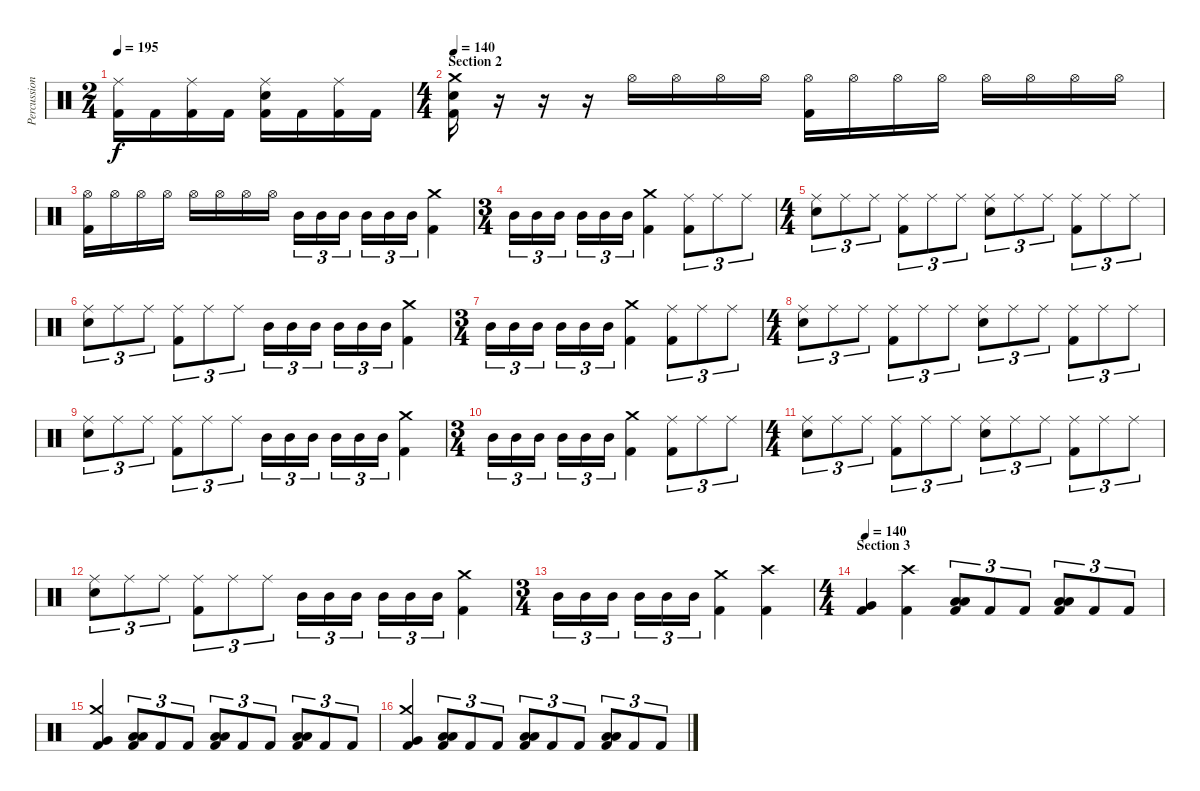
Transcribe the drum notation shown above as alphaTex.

\track ("Percussion" "Percussion") {instrument percussion}
\staff {score}
\articulation defaults
\ts (2 4)
\tempo 195
\clef neutral
\ks c
("Ride (middle)" "Kick (hit) 2").16{dy f} "Kick (hit) 2".16 ("Ride (middle)" "Kick (hit) 2").16 "Kick (hit) 2".16 ("Ride (middle)" "Electric Snare (hit)" "Kick (hit) 2").16 "Kick (hit) 2".16 ("Ride (middle)" "Kick (hit) 2").16 "Kick (hit) 2".16 |
\ts (4 4)
\section ("" "Section 2")
\tempo 140
("Crash medium (hit)" "Electric Snare (hit)" "Kick (hit) 2").16 r.16 r.16 r.16 "Hi-Hat (open)".16 "Hi-Hat (open)".16 "Hi-Hat (open)".16 "Hi-Hat (open)".16 ("Hi-Hat (open)" "Kick (hit) 2").16 "Hi-Hat (open)".16 "Hi-Hat (open)".16 "Hi-Hat (open)".16 "Hi-Hat (open)".16 "Hi-Hat (open)".16 "Hi-Hat (open)".16 "Hi-Hat (open)".16 |
("Hi-Hat (open)" "Kick (hit) 2").16 "Hi-Hat (open)".16 "Hi-Hat (open)".16 "Hi-Hat (open)".16 "Hi-Hat (open)".16 "Hi-Hat (open)".16 "Hi-Hat (open)".16 "Hi-Hat (open)".16 "Mid Tom (hit)".16{tu (3 2)} "Mid Tom (hit)".16{tu (3 2)} "Mid Tom (hit)".16{tu (3 2)} "Mid Tom (hit)".16{tu (3 2)} "Mid Tom (hit)".16{tu (3 2)} "Mid Tom (hit)".16{tu (3 2)} ("Crash medium (hit)" "Kick (hit) 2").4 |
\ts (3 4)
"Mid Tom (hit)".16{tu (3 2)} "Mid Tom (hit)".16{tu (3 2)} "Mid Tom (hit)".16{tu (3 2)} "Mid Tom (hit)".16{tu (3 2)} "Mid Tom (hit)".16{tu (3 2)} "Mid Tom (hit)".16{tu (3 2)} ("Crash medium (hit)" "Kick (hit) 2").4 ("Ride (middle)" "Kick (hit) 2").8{tu (3 2)} "Ride (middle)".8{tu (3 2)} "Ride (middle)".8{tu (3 2)} |
\ts (4 4)
("Ride (middle)" "Electric Snare (hit)").8{tu (3 2)} "Ride (middle)".8{tu (3 2)} "Ride (middle)".8{tu (3 2)} ("Ride (middle)" "Kick (hit) 2").8{tu (3 2)} "Ride (middle)".8{tu (3 2)} "Ride (middle)".8{tu (3 2)} ("Ride (middle)" "Electric Snare (hit)").8{tu (3 2)} "Ride (middle)".8{tu (3 2)} "Ride (middle)".8{tu (3 2)} ("Ride (middle)" "Kick (hit) 2").8{tu (3 2)} "Ride (middle)".8{tu (3 2)} "Ride (middle)".8{tu (3 2)} |
("Ride (middle)" "Electric Snare (hit)").8{tu (3 2)} "Ride (middle)".8{tu (3 2)} "Ride (middle)".8{tu (3 2)} ("Ride (middle)" "Kick (hit) 2").8{tu (3 2)} "Ride (middle)".8{tu (3 2)} "Ride (middle)".8{tu (3 2)} "Mid Tom (hit)".16{tu (3 2)} "Mid Tom (hit)".16{tu (3 2)} "Mid Tom (hit)".16{tu (3 2)} "Mid Tom (hit)".16{tu (3 2)} "Mid Tom (hit)".16{tu (3 2)} "Mid Tom (hit)".16{tu (3 2)} ("Crash medium (hit)" "Kick (hit) 2").4 |
\ts (3 4)
"Mid Tom (hit)".16{tu (3 2)} "Mid Tom (hit)".16{tu (3 2)} "Mid Tom (hit)".16{tu (3 2)} "Mid Tom (hit)".16{tu (3 2)} "Mid Tom (hit)".16{tu (3 2)} "Mid Tom (hit)".16{tu (3 2)} ("Crash medium (hit)" "Kick (hit) 2").4 ("Ride (middle)" "Kick (hit) 2").8{tu (3 2)} "Ride (middle)".8{tu (3 2)} "Ride (middle)".8{tu (3 2)} |
\ts (4 4)
("Ride (middle)" "Electric Snare (hit)").8{tu (3 2)} "Ride (middle)".8{tu (3 2)} "Ride (middle)".8{tu (3 2)} ("Ride (middle)" "Kick (hit) 2").8{tu (3 2)} "Ride (middle)".8{tu (3 2)} "Ride (middle)".8{tu (3 2)} ("Ride (middle)" "Electric Snare (hit)").8{tu (3 2)} "Ride (middle)".8{tu (3 2)} "Ride (middle)".8{tu (3 2)} ("Ride (middle)" "Kick (hit) 2").8{tu (3 2)} "Ride (middle)".8{tu (3 2)} "Ride (middle)".8{tu (3 2)} |
("Ride (middle)" "Electric Snare (hit)").8{tu (3 2)} "Ride (middle)".8{tu (3 2)} "Ride (middle)".8{tu (3 2)} ("Ride (middle)" "Kick (hit) 2").8{tu (3 2)} "Ride (middle)".8{tu (3 2)} "Ride (middle)".8{tu (3 2)} "Mid Tom (hit)".16{tu (3 2)} "Mid Tom (hit)".16{tu (3 2)} "Mid Tom (hit)".16{tu (3 2)} "Mid Tom (hit)".16{tu (3 2)} "Mid Tom (hit)".16{tu (3 2)} "Mid Tom (hit)".16{tu (3 2)} ("Crash medium (hit)" "Kick (hit) 2").4 |
\ts (3 4)
"Mid Tom (hit)".16{tu (3 2)} "Mid Tom (hit)".16{tu (3 2)} "Mid Tom (hit)".16{tu (3 2)} "Mid Tom (hit)".16{tu (3 2)} "Mid Tom (hit)".16{tu (3 2)} "Mid Tom (hit)".16{tu (3 2)} ("Crash medium (hit)" "Kick (hit) 2").4 ("Ride (middle)" "Kick (hit) 2").8{tu (3 2)} "Ride (middle)".8{tu (3 2)} "Ride (middle)".8{tu (3 2)} |
\ts (4 4)
("Ride (middle)" "Electric Snare (hit)").8{tu (3 2)} "Ride (middle)".8{tu (3 2)} "Ride (middle)".8{tu (3 2)} ("Ride (middle)" "Kick (hit) 2").8{tu (3 2)} "Ride (middle)".8{tu (3 2)} "Ride (middle)".8{tu (3 2)} ("Ride (middle)" "Electric Snare (hit)").8{tu (3 2)} "Ride (middle)".8{tu (3 2)} "Ride (middle)".8{tu (3 2)} ("Ride (middle)" "Kick (hit) 2").8{tu (3 2)} "Ride (middle)".8{tu (3 2)} "Ride (middle)".8{tu (3 2)} |
("Ride (middle)" "Electric Snare (hit)").8{tu (3 2)} "Ride (middle)".8{tu (3 2)} "Ride (middle)".8{tu (3 2)} ("Ride (middle)" "Kick (hit) 2").8{tu (3 2)} "Ride (middle)".8{tu (3 2)} "Ride (middle)".8{tu (3 2)} "Mid Tom (hit)".16{tu (3 2)} "Mid Tom (hit)".16{tu (3 2)} "Mid Tom (hit)".16{tu (3 2)} "Mid Tom (hit)".16{tu (3 2)} "Mid Tom (hit)".16{tu (3 2)} "Mid Tom (hit)".16{tu (3 2)} ("Crash medium (hit)" "Kick (hit) 2").4 |
\ts (3 4)
"Mid Tom (hit)".16{tu (3 2)} "Mid Tom (hit)".16{tu (3 2)} "Mid Tom (hit)".16{tu (3 2)} "Mid Tom (hit)".16{tu (3 2)} "Mid Tom (hit)".16{tu (3 2)} "Mid Tom (hit)".16{tu (3 2)} ("Crash medium (hit)" "Kick (hit) 2").4 ("Crash high (hit)" "Kick (hit) 2").4 |
\ts (4 4)
\section ("" "Section 3")
\tempo 140
("Very Low Tom (hit)" "Kick (hit) 2").4 ("Crash high (hit)" "Kick (hit) 2").4 ("Low Tom (hit)" "Low Tom (hit)" "Kick (hit) 2").8{tu (3 2)} "Kick (hit) 2".8{tu (3 2)} "Kick (hit) 2".8{tu (3 2)} ("Low Tom (hit)" "Low Tom (hit)" "Kick (hit) 2").8{tu (3 2)} "Kick (hit) 2".8{tu (3 2)} "Kick (hit) 2".8{tu (3 2)} |
("Crash medium (hit)" "Very Low Tom (hit)" "Kick (hit) 2").4 ("Low Tom (hit)" "Low Tom (hit)" "Kick (hit) 2").8{tu (3 2)} "Kick (hit) 2".8{tu (3 2)} "Kick (hit) 2".8{tu (3 2)} ("Low Tom (hit)" "Low Tom (hit)" "Kick (hit) 2").8{tu (3 2)} "Kick (hit) 2".8{tu (3 2)} "Kick (hit) 2".8{tu (3 2)} ("Low Tom (hit)" "Low Tom (hit)" "Kick (hit) 2").8{tu (3 2)} "Kick (hit) 2".8{tu (3 2)} "Kick (hit) 2".8{tu (3 2)} |
("Crash medium (hit)" "Very Low Tom (hit)" "Kick (hit) 2").4 ("Low Tom (hit)" "Low Tom (hit)" "Kick (hit) 2").8{tu (3 2)} "Kick (hit) 2".8{tu (3 2)} "Kick (hit) 2".8{tu (3 2)} ("Low Tom (hit)" "Low Tom (hit)" "Kick (hit) 2").8{tu (3 2)} "Kick (hit) 2".8{tu (3 2)} "Kick (hit) 2".8{tu (3 2)} ("Low Tom (hit)" "Low Tom (hit)" "Kick (hit) 2").8{tu (3 2)} "Kick (hit) 2".8{tu (3 2)} "Kick (hit) 2".8{tu (3 2)}
